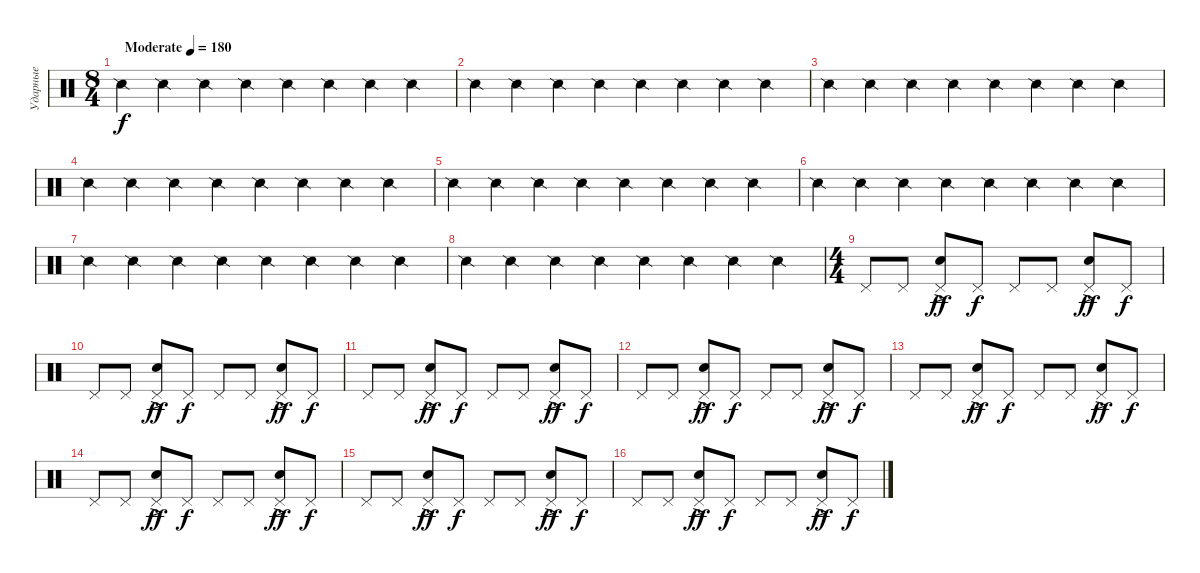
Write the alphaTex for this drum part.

\track ("Ударные" "Ударные") {instrument percussion}
\staff {score}
\articulation defaults
\ts (8 4)
\tempo (180 "Moderate")
\clef neutral
\ks c "Snare (side stick) 2".4{dy f} "Snare (side stick) 2".4 "Snare (side stick) 2".4 "Snare (side stick) 2".4 "Snare (side stick) 2".4 "Snare (side stick) 2".4 "Snare (side stick) 2".4 "Snare (side stick) 2".4
|
"Snare (side stick) 2".4 "Snare (side stick) 2".4 "Snare (side stick) 2".4 "Snare (side stick) 2".4 "Snare (side stick) 2".4 "Snare (side stick) 2".4 "Snare (side stick) 2".4 "Snare (side stick) 2".4 |
"Snare (side stick) 2".4 "Snare (side stick) 2".4 "Snare (side stick) 2".4 "Snare (side stick) 2".4 "Snare (side stick) 2".4 "Snare (side stick) 2".4 "Snare (side stick) 2".4 "Snare (side stick) 2".4 |
"Snare (side stick) 2".4 "Snare (side stick) 2".4 "Snare (side stick) 2".4 "Snare (side stick) 2".4 "Snare (side stick) 2".4 "Snare (side stick) 2".4 "Snare (side stick) 2".4 "Snare (side stick) 2".4 |
"Snare (side stick) 2".4 "Snare (side stick) 2".4 "Snare (side stick) 2".4 "Snare (side stick) 2".4 "Snare (side stick) 2".4 "Snare (side stick) 2".4 "Snare (side stick) 2".4 "Snare (side stick) 2".4 |
"Snare (side stick) 2".4 "Snare (side stick) 2".4 "Snare (side stick) 2".4 "Snare (side stick) 2".4 "Snare (side stick) 2".4 "Snare (side stick) 2".4 "Snare (side stick) 2".4 "Snare (side stick) 2".4 |
"Snare (side stick) 2".4 "Snare (side stick) 2".4 "Snare (side stick) 2".4 "Snare (side stick) 2".4 "Snare (side stick) 2".4 "Snare (side stick) 2".4 "Snare (side stick) 2".4 "Snare (side stick) 2".4 |
"Snare (side stick) 2".4 "Snare (side stick) 2".4 "Snare (side stick) 2".4 "Snare (side stick) 2".4 "Snare (side stick) 2".4 "Snare (side stick) 2".4 "Snare (side stick) 2".4 "Snare (side stick) 2".4 |
\ts (4 4)
"Pedal Hi-Hat (hit)".8 "Pedal Hi-Hat (hit)".8 ("Pedal Hi-Hat (hit)"{ac} "Electric Snare (hit)").8{dy ff} "Pedal Hi-Hat (hit)".8{dy f} "Pedal Hi-Hat (hit)".8 "Pedal Hi-Hat (hit)".8 ("Pedal Hi-Hat (hit)"{ac} "Electric Snare (hit)").8{dy ff} "Pedal Hi-Hat (hit)".8{dy f} |
"Pedal Hi-Hat (hit)".8 "Pedal Hi-Hat (hit)".8 ("Pedal Hi-Hat (hit)"{ac} "Electric Snare (hit)").8{dy ff} "Pedal Hi-Hat (hit)".8{dy f} "Pedal Hi-Hat (hit)".8 "Pedal Hi-Hat (hit)".8 ("Pedal Hi-Hat (hit)"{ac} "Electric Snare (hit)").8{dy ff} "Pedal Hi-Hat (hit)".8{dy f} |
"Pedal Hi-Hat (hit)".8 "Pedal Hi-Hat (hit)".8 ("Pedal Hi-Hat (hit)"{ac} "Electric Snare (hit)").8{dy ff} "Pedal Hi-Hat (hit)".8{dy f} "Pedal Hi-Hat (hit)".8 "Pedal Hi-Hat (hit)".8 ("Pedal Hi-Hat (hit)"{ac} "Electric Snare (hit)").8{dy ff} "Pedal Hi-Hat (hit)".8{dy f} |
"Pedal Hi-Hat (hit)".8 "Pedal Hi-Hat (hit)".8 ("Pedal Hi-Hat (hit)"{ac} "Electric Snare (hit)").8{dy ff} "Pedal Hi-Hat (hit)".8{dy f} "Pedal Hi-Hat (hit)".8 "Pedal Hi-Hat (hit)".8 ("Pedal Hi-Hat (hit)"{ac} "Electric Snare (hit)").8{dy ff} "Pedal Hi-Hat (hit)".8{dy f} |
"Pedal Hi-Hat (hit)".8 "Pedal Hi-Hat (hit)".8 ("Pedal Hi-Hat (hit)"{ac} "Electric Snare (hit)").8{dy ff} "Pedal Hi-Hat (hit)".8{dy f} "Pedal Hi-Hat (hit)".8 "Pedal Hi-Hat (hit)".8 ("Pedal Hi-Hat (hit)"{ac} "Electric Snare (hit)").8{dy ff} "Pedal Hi-Hat (hit)".8{dy f} |
"Pedal Hi-Hat (hit)".8 "Pedal Hi-Hat (hit)".8 ("Pedal Hi-Hat (hit)"{ac} "Electric Snare (hit)").8{dy ff} "Pedal Hi-Hat (hit)".8{dy f} "Pedal Hi-Hat (hit)".8 "Pedal Hi-Hat (hit)".8 ("Pedal Hi-Hat (hit)"{ac} "Electric Snare (hit)").8{dy ff} "Pedal Hi-Hat (hit)".8{dy f} |
"Pedal Hi-Hat (hit)".8 "Pedal Hi-Hat (hit)".8 ("Pedal Hi-Hat (hit)"{ac} "Electric Snare (hit)").8{dy ff} "Pedal Hi-Hat (hit)".8{dy f} "Pedal Hi-Hat (hit)".8 "Pedal Hi-Hat (hit)".8 ("Pedal Hi-Hat (hit)"{ac} "Electric Snare (hit)").8{dy ff} "Pedal Hi-Hat (hit)".8{dy f} |
"Pedal Hi-Hat (hit)".8 "Pedal Hi-Hat (hit)".8 ("Pedal Hi-Hat (hit)"{ac} "Electric Snare (hit)").8{dy ff} "Pedal Hi-Hat (hit)".8{dy f} "Pedal Hi-Hat (hit)".8 "Pedal Hi-Hat (hit)".8 ("Pedal Hi-Hat (hit)"{ac} "Electric Snare (hit)").8{dy ff} "Pedal Hi-Hat (hit)".8{dy f}
